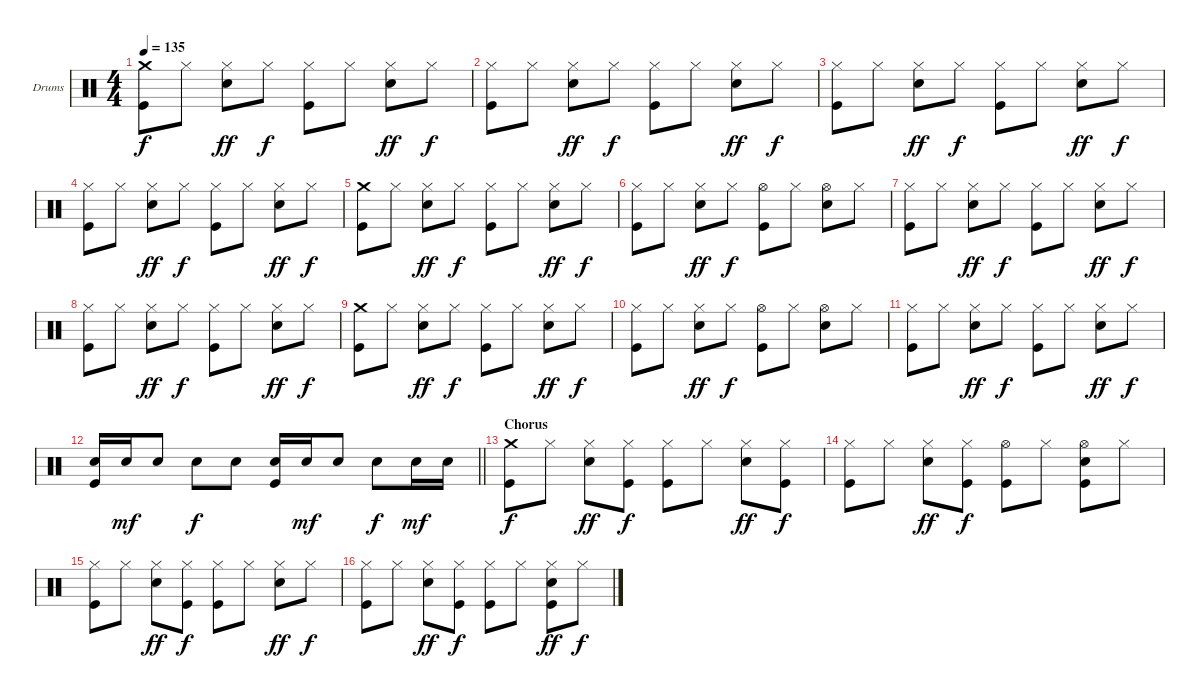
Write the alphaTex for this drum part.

\bracketExtendMode groupsimilarinstruments
\firstSystemTrackNameOrientation horizontal
\otherSystemsTrackNameOrientation horizontal
\track ("Drumkit" "Drums") {instrument percussion}
\staff {score}
\articulation defaults
\ts (4 4)
\tempo 135
\clef neutral
\ks c
("Crash medium (hit)" "Kick (hit)").8{dy f} "Hi-Hat (closed)".8 ("Hi-Hat (closed)" "Snare (hit) 2").8{dy ff} "Hi-Hat (closed)".8{dy f} ("Hi-Hat (closed)" "Kick (hit)").8 "Hi-Hat (closed)".8 ("Hi-Hat (closed)" "Snare (hit) 2").8{dy ff} "Hi-Hat (closed)".8{dy f} |
("Hi-Hat (closed)" "Kick (hit)").8 "Hi-Hat (closed)".8 ("Hi-Hat (closed)" "Snare (hit) 2").8{dy ff} "Hi-Hat (closed)".8{dy f} ("Hi-Hat (closed)" "Kick (hit)").8 "Hi-Hat (closed)".8 ("Hi-Hat (closed)" "Snare (hit) 2").8{dy ff} "Hi-Hat (closed)".8{dy f} |
("Hi-Hat (closed)" "Kick (hit)").8 "Hi-Hat (closed)".8 ("Hi-Hat (closed)" "Snare (hit) 2").8{dy ff} "Hi-Hat (closed)".8{dy f} ("Hi-Hat (closed)" "Kick (hit)").8 "Hi-Hat (closed)".8 ("Hi-Hat (closed)" "Snare (hit) 2").8{dy ff} "Hi-Hat (closed)".8{dy f} |
("Hi-Hat (closed)" "Kick (hit)").8 "Hi-Hat (closed)".8 ("Hi-Hat (closed)" "Snare (hit) 2").8{dy ff} "Hi-Hat (closed)".8{dy f} ("Hi-Hat (closed)" "Kick (hit)").8 "Hi-Hat (closed)".8 ("Hi-Hat (closed)" "Snare (hit) 2").8{dy ff} "Hi-Hat (closed)".8{dy f} |
("Crash medium (hit)" "Kick (hit)").8 "Hi-Hat (closed)".8 ("Hi-Hat (closed)" "Snare (hit) 2").8{dy ff} "Hi-Hat (closed)".8{dy f} ("Hi-Hat (closed)" "Kick (hit)").8 "Hi-Hat (closed)".8 ("Hi-Hat (closed)" "Snare (hit) 2").8{dy ff} "Hi-Hat (closed)".8{dy f} |
("Hi-Hat (closed)" "Kick (hit)").8 "Hi-Hat (closed)".8 ("Hi-Hat (closed)" "Snare (hit) 2").8{dy ff} "Hi-Hat (closed)".8{dy f} ("Hi-Hat (open)" "Kick (hit)").8 "Hi-Hat (closed)".8 ("Hi-Hat (open)" "Snare (hit) 2").8 "Hi-Hat (closed)".8 |
("Hi-Hat (closed)" "Kick (hit)").8 "Hi-Hat (closed)".8 ("Hi-Hat (closed)" "Snare (hit) 2").8{dy ff} "Hi-Hat (closed)".8{dy f} ("Hi-Hat (closed)" "Kick (hit)").8 "Hi-Hat (closed)".8 ("Hi-Hat (closed)" "Snare (hit) 2").8{dy ff} "Hi-Hat (closed)".8{dy f} |
("Hi-Hat (closed)" "Kick (hit)").8 "Hi-Hat (closed)".8 ("Hi-Hat (closed)" "Snare (hit) 2").8{dy ff} "Hi-Hat (closed)".8{dy f} ("Hi-Hat (closed)" "Kick (hit)").8 "Hi-Hat (closed)".8 ("Hi-Hat (closed)" "Snare (hit) 2").8{dy ff} "Hi-Hat (closed)".8{dy f} |
("Crash medium (hit)" "Kick (hit)").8 "Hi-Hat (closed)".8 ("Hi-Hat (closed)" "Snare (hit) 2").8{dy ff} "Hi-Hat (closed)".8{dy f} ("Hi-Hat (closed)" "Kick (hit)").8 "Hi-Hat (closed)".8 ("Hi-Hat (closed)" "Snare (hit) 2").8{dy ff} "Hi-Hat (closed)".8{dy f} |
("Hi-Hat (closed)" "Kick (hit)").8 "Hi-Hat (closed)".8 ("Hi-Hat (closed)" "Snare (hit) 2").8{dy ff} "Hi-Hat (closed)".8{dy f} ("Hi-Hat (open)" "Kick (hit)").8 "Hi-Hat (closed)".8 ("Hi-Hat (open)" "Snare (hit) 2").8 "Hi-Hat (closed)".8 |
("Hi-Hat (closed)" "Kick (hit)").8 "Hi-Hat (closed)".8 ("Hi-Hat (closed)" "Snare (hit) 2").8{dy ff} "Hi-Hat (closed)".8{dy f} ("Hi-Hat (closed)" "Kick (hit)").8 "Hi-Hat (closed)".8 ("Hi-Hat (closed)" "Snare (hit) 2").8{dy ff} "Hi-Hat (closed)".8{dy f} |
\barLineRight lightlight
("Snare (hit) 2" "Kick (hit)").16 "Snare (hit) 2".16{dy mf} "Snare (hit) 2".8 "Snare (hit) 2".8{dy f} "Snare (hit) 2".8 ("Snare (hit) 2" "Kick (hit)").16 "Snare (hit) 2".16{dy mf} "Snare (hit) 2".8 "Snare (hit) 2".8{dy f} "Snare (hit) 2".16{dy mf} "Snare (hit) 2".16 |
\section ("" "Chorus")
("Crash medium (hit)" "Kick (hit)").8{dy f} "Hi-Hat (closed)".8 ("Hi-Hat (closed)" "Snare (hit) 2").8{dy ff} ("Hi-Hat (closed)" "Kick (hit)").8{dy f} ("Hi-Hat (closed)" "Kick (hit)").8 "Hi-Hat (closed)".8 ("Hi-Hat (closed)" "Snare (hit) 2").8{dy ff} ("Hi-Hat (closed)" "Kick (hit)").8{dy f} |
("Hi-Hat (closed)" "Kick (hit)").8 "Hi-Hat (closed)".8 ("Hi-Hat (closed)" "Snare (hit) 2").8{dy ff} ("Hi-Hat (closed)" "Kick (hit)").8{dy f} ("Hi-Hat (open)" "Kick (hit)").8 "Hi-Hat (closed)".8 ("Hi-Hat (open)" "Snare (hit) 2" "Kick (hit)").8 "Hi-Hat (closed)".8 |
("Hi-Hat (closed)" "Kick (hit)").8 "Hi-Hat (closed)".8 ("Hi-Hat (closed)" "Snare (hit) 2").8{dy ff} ("Hi-Hat (closed)" "Kick (hit)").8{dy f} ("Hi-Hat (closed)" "Kick (hit)").8 "Hi-Hat (closed)".8 ("Hi-Hat (closed)" "Snare (hit) 2").8{dy ff} "Hi-Hat (closed)".8{dy f} |
("Hi-Hat (closed)" "Kick (hit)").8 "Hi-Hat (closed)".8 ("Hi-Hat (closed)" "Snare (hit) 2").8{dy ff} ("Hi-Hat (closed)" "Kick (hit)").8{dy f} ("Hi-Hat (closed)" "Kick (hit)").8 "Hi-Hat (closed)".8 ("Hi-Hat (closed)" "Snare (hit) 2" "Kick (hit)").8{dy ff} "Hi-Hat (closed)".8{dy f}
